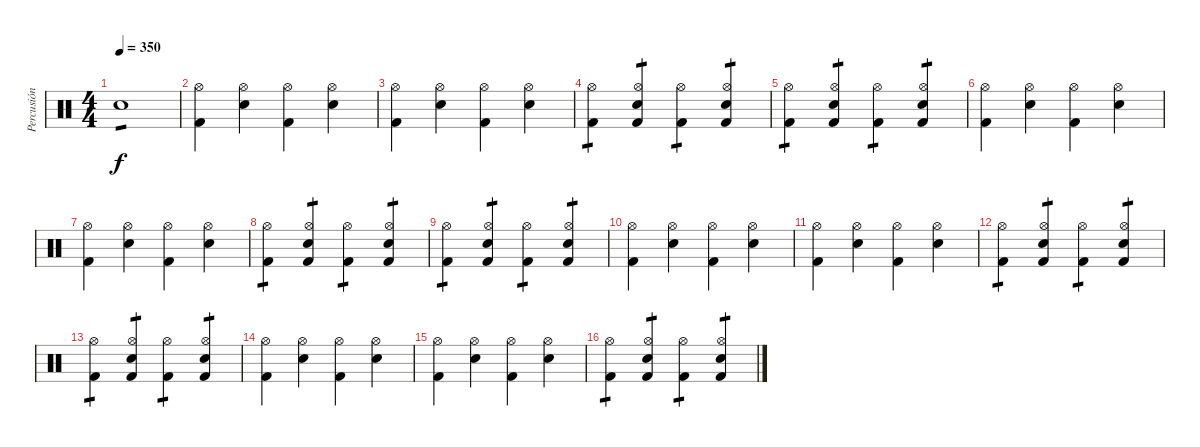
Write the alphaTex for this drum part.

\track ("Percusión" "Percusión") {instrument percussion}
\staff {score}
\articulation defaults
\ts (4 4)
\tempo 350
\clef neutral
\ks c "Electric Snare (hit)".1{tp 1 dy f}
|
("Hi-Hat (open)" "Kick (hit) 2").4 ("Hi-Hat (open)" "Electric Snare (hit)").4 ("Hi-Hat (open)" "Kick (hit) 2").4 ("Hi-Hat (open)" "Electric Snare (hit)").4 |
("Hi-Hat (open)" "Kick (hit) 2").4 ("Hi-Hat (open)" "Electric Snare (hit)").4 ("Hi-Hat (open)" "Kick (hit) 2").4 ("Hi-Hat (open)" "Electric Snare (hit)").4 |
("Hi-Hat (open)" "Kick (hit) 2").4{tp 1} ("Hi-Hat (open)" "Electric Snare (hit)" "Kick (hit) 2").4{tp 1} ("Hi-Hat (open)" "Kick (hit) 2").4{tp 1} ("Hi-Hat (open)" "Electric Snare (hit)" "Kick (hit) 2").4{tp 1} |
("Hi-Hat (open)" "Kick (hit) 2").4{tp 1} ("Hi-Hat (open)" "Electric Snare (hit)" "Kick (hit) 2").4{tp 1} ("Hi-Hat (open)" "Kick (hit) 2").4{tp 1} ("Hi-Hat (open)" "Electric Snare (hit)" "Kick (hit) 2").4{tp 1} |
("Hi-Hat (open)" "Kick (hit) 2").4 ("Hi-Hat (open)" "Electric Snare (hit)").4 ("Hi-Hat (open)" "Kick (hit) 2").4 ("Hi-Hat (open)" "Electric Snare (hit)").4 |
("Hi-Hat (open)" "Kick (hit) 2").4 ("Hi-Hat (open)" "Electric Snare (hit)").4 ("Hi-Hat (open)" "Kick (hit) 2").4 ("Hi-Hat (open)" "Electric Snare (hit)").4 |
("Hi-Hat (open)" "Kick (hit) 2").4{tp 1} ("Hi-Hat (open)" "Electric Snare (hit)" "Kick (hit) 2").4{tp 1} ("Hi-Hat (open)" "Kick (hit) 2").4{tp 1} ("Hi-Hat (open)" "Electric Snare (hit)" "Kick (hit) 2").4{tp 1} |
("Hi-Hat (open)" "Kick (hit) 2").4{tp 1} ("Hi-Hat (open)" "Electric Snare (hit)" "Kick (hit) 2").4{tp 1} ("Hi-Hat (open)" "Kick (hit) 2").4{tp 1} ("Hi-Hat (open)" "Electric Snare (hit)" "Kick (hit) 2").4{tp 1} |
("Hi-Hat (open)" "Kick (hit) 2").4 ("Hi-Hat (open)" "Electric Snare (hit)").4 ("Hi-Hat (open)" "Kick (hit) 2").4 ("Hi-Hat (open)" "Electric Snare (hit)").4 |
("Hi-Hat (open)" "Kick (hit) 2").4 ("Hi-Hat (open)" "Electric Snare (hit)").4 ("Hi-Hat (open)" "Kick (hit) 2").4 ("Hi-Hat (open)" "Electric Snare (hit)").4 |
("Hi-Hat (open)" "Kick (hit) 2").4{tp 1} ("Hi-Hat (open)" "Electric Snare (hit)" "Kick (hit) 2").4{tp 1} ("Hi-Hat (open)" "Kick (hit) 2").4{tp 1} ("Hi-Hat (open)" "Electric Snare (hit)" "Kick (hit) 2").4{tp 1} |
("Hi-Hat (open)" "Kick (hit) 2").4{tp 1} ("Hi-Hat (open)" "Electric Snare (hit)" "Kick (hit) 2").4{tp 1} ("Hi-Hat (open)" "Kick (hit) 2").4{tp 1} ("Hi-Hat (open)" "Electric Snare (hit)" "Kick (hit) 2").4{tp 1} |
("Hi-Hat (open)" "Kick (hit) 2").4 ("Hi-Hat (open)" "Electric Snare (hit)").4 ("Hi-Hat (open)" "Kick (hit) 2").4 ("Hi-Hat (open)" "Electric Snare (hit)").4 |
("Hi-Hat (open)" "Kick (hit) 2").4 ("Hi-Hat (open)" "Electric Snare (hit)").4 ("Hi-Hat (open)" "Kick (hit) 2").4 ("Hi-Hat (open)" "Electric Snare (hit)").4 |
("Hi-Hat (open)" "Kick (hit) 2").4{tp 1} ("Hi-Hat (open)" "Electric Snare (hit)" "Kick (hit) 2").4{tp 1} ("Hi-Hat (open)" "Kick (hit) 2").4{tp 1} ("Hi-Hat (open)" "Electric Snare (hit)" "Kick (hit) 2").4{tp 1}
